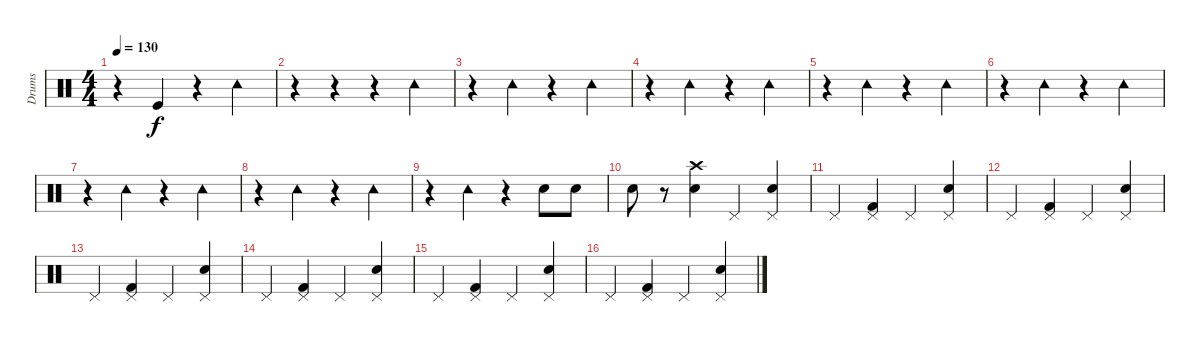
\track ("Drums" "Drums") {instrument percussion}
\staff {score}
\articulation defaults
\ts (4 4)
\tempo 130
\clef neutral
\ks c
r.4{dy f} "Kick (hit)".4 r.4 "Tambourine (hit)".4 |
r.4 r.4 r.4 "Tambourine (hit)".4 |
r.4 "Tambourine (hit)".4 r.4 "Tambourine (hit)".4 |
r.4 "Tambourine (hit)".4 r.4 "Tambourine (hit)".4 |
r.4 "Tambourine (hit)".4 r.4 "Tambourine (hit)".4 |
r.4 "Tambourine (hit)".4 r.4 "Tambourine (hit)".4 |
r.4 "Tambourine (hit)".4 r.4 "Tambourine (hit)".4 |
r.4 "Tambourine (hit)".4 r.4 "Tambourine (hit)".4 |
r.4 "Tambourine (hit)".4 r.4 "Snare (hit) 2".8 "Snare (hit) 2".8 |
"Snare (hit) 2".8 r.8 ("Crash high (hit)" "Snare (hit) 2").4 "Pedal Hi-Hat (hit)".4 ("Snare (hit) 2" "Pedal Hi-Hat (hit)").4 |
"Pedal Hi-Hat (hit)".4 ("Kick (hit) 2" "Pedal Hi-Hat (hit)").4 "Pedal Hi-Hat (hit)".4 ("Snare (hit) 2" "Pedal Hi-Hat (hit)").4 |
"Pedal Hi-Hat (hit)".4 ("Kick (hit) 2" "Pedal Hi-Hat (hit)").4 "Pedal Hi-Hat (hit)".4 ("Snare (hit) 2" "Pedal Hi-Hat (hit)").4 |
"Pedal Hi-Hat (hit)".4 ("Kick (hit) 2" "Pedal Hi-Hat (hit)").4 "Pedal Hi-Hat (hit)".4 ("Snare (hit) 2" "Pedal Hi-Hat (hit)").4 |
"Pedal Hi-Hat (hit)".4 ("Kick (hit) 2" "Pedal Hi-Hat (hit)").4 "Pedal Hi-Hat (hit)".4 ("Snare (hit) 2" "Pedal Hi-Hat (hit)").4 |
"Pedal Hi-Hat (hit)".4 ("Kick (hit) 2" "Pedal Hi-Hat (hit)").4 "Pedal Hi-Hat (hit)".4 ("Snare (hit) 2" "Pedal Hi-Hat (hit)").4 |
"Pedal Hi-Hat (hit)".4 ("Kick (hit) 2" "Pedal Hi-Hat (hit)").4 "Pedal Hi-Hat (hit)".4 ("Snare (hit) 2" "Pedal Hi-Hat (hit)").4
